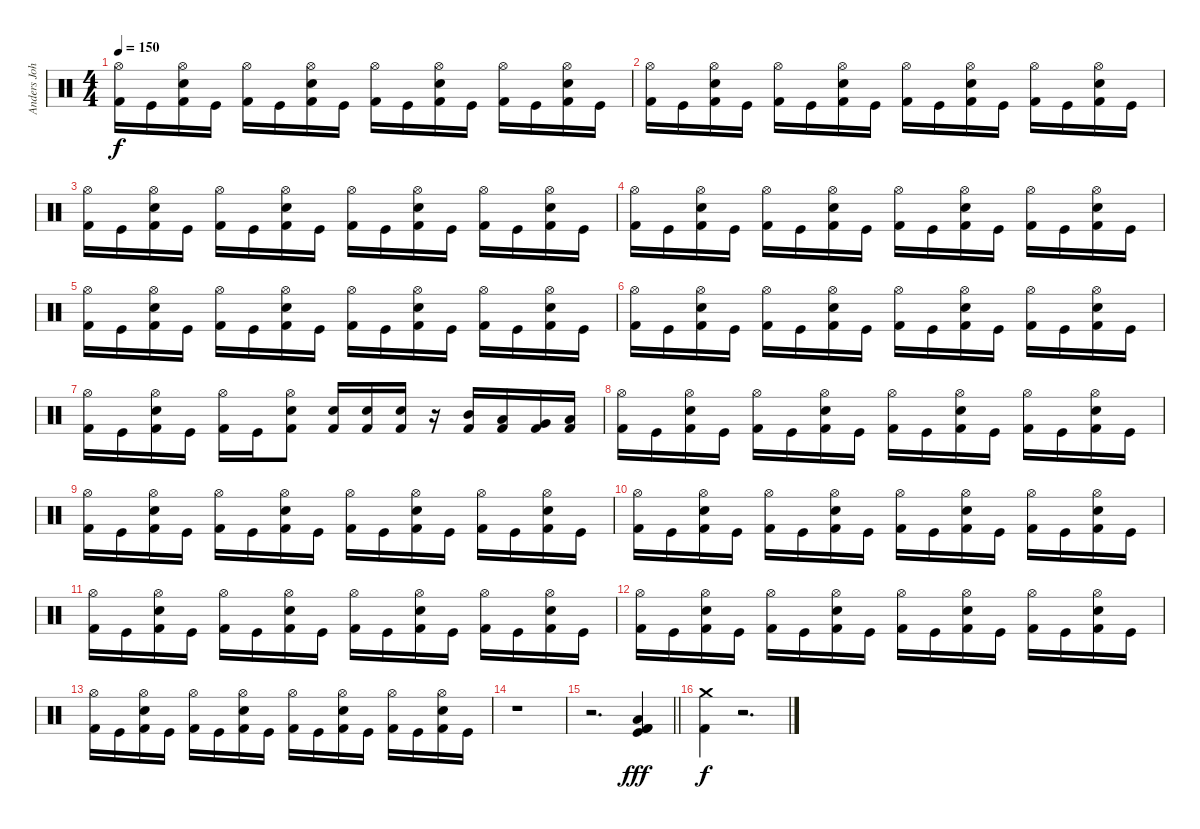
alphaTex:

\track ("Anders Johansson" "Anders Joh") {instrument percussion}
\staff {score}
\articulation defaults
\ts (4 4)
\tempo 150
\clef neutral
\ks c
("Hi-Hat (open)" "Kick (hit) 2").16{dy f} "Kick (hit)".16 ("Hi-Hat (open)" "Electric Snare (hit)" "Kick (hit) 2").16 "Kick (hit)".16 ("Hi-Hat (open)" "Kick (hit) 2").16 "Kick (hit)".16 ("Hi-Hat (open)" "Electric Snare (hit)" "Kick (hit) 2").16 "Kick (hit)".16 ("Hi-Hat (open)" "Kick (hit) 2").16 "Kick (hit)".16 ("Hi-Hat (open)" "Electric Snare (hit)" "Kick (hit) 2").16 "Kick (hit)".16 ("Hi-Hat (open)" "Kick (hit) 2").16 "Kick (hit)".16 ("Hi-Hat (open)" "Electric Snare (hit)" "Kick (hit) 2").16 "Kick (hit)".16 |
("Hi-Hat (open)" "Kick (hit) 2").16 "Kick (hit)".16 ("Hi-Hat (open)" "Electric Snare (hit)" "Kick (hit) 2").16 "Kick (hit)".16 ("Hi-Hat (open)" "Kick (hit) 2").16 "Kick (hit)".16 ("Hi-Hat (open)" "Electric Snare (hit)" "Kick (hit) 2").16 "Kick (hit)".16 ("Hi-Hat (open)" "Kick (hit) 2").16 "Kick (hit)".16 ("Hi-Hat (open)" "Electric Snare (hit)" "Kick (hit) 2").16 "Kick (hit)".16 ("Hi-Hat (open)" "Kick (hit) 2").16 "Kick (hit)".16 ("Hi-Hat (open)" "Electric Snare (hit)" "Kick (hit) 2").16 "Kick (hit)".16 |
("Hi-Hat (open)" "Kick (hit) 2").16 "Kick (hit)".16 ("Hi-Hat (open)" "Electric Snare (hit)" "Kick (hit) 2").16 "Kick (hit)".16 ("Hi-Hat (open)" "Kick (hit) 2").16 "Kick (hit)".16 ("Hi-Hat (open)" "Electric Snare (hit)" "Kick (hit) 2").16 "Kick (hit)".16 ("Hi-Hat (open)" "Kick (hit) 2").16 "Kick (hit)".16 ("Hi-Hat (open)" "Electric Snare (hit)" "Kick (hit) 2").16 "Kick (hit)".16 ("Hi-Hat (open)" "Kick (hit) 2").16 "Kick (hit)".16 ("Hi-Hat (open)" "Electric Snare (hit)" "Kick (hit) 2").16 "Kick (hit)".16 |
("Hi-Hat (open)" "Kick (hit) 2").16 "Kick (hit)".16 ("Hi-Hat (open)" "Electric Snare (hit)" "Kick (hit) 2").16 "Kick (hit)".16 ("Hi-Hat (open)" "Kick (hit) 2").16 "Kick (hit)".16 ("Hi-Hat (open)" "Electric Snare (hit)" "Kick (hit) 2").16 "Kick (hit)".16 ("Hi-Hat (open)" "Kick (hit) 2").16 "Kick (hit)".16 ("Hi-Hat (open)" "Electric Snare (hit)" "Kick (hit) 2").16 "Kick (hit)".16 ("Hi-Hat (open)" "Kick (hit) 2").16 "Kick (hit)".16 ("Hi-Hat (open)" "Electric Snare (hit)" "Kick (hit) 2").16 "Kick (hit)".16 |
("Hi-Hat (open)" "Kick (hit) 2").16 "Kick (hit)".16 ("Hi-Hat (open)" "Electric Snare (hit)" "Kick (hit) 2").16 "Kick (hit)".16 ("Hi-Hat (open)" "Kick (hit) 2").16 "Kick (hit)".16 ("Hi-Hat (open)" "Electric Snare (hit)" "Kick (hit) 2").16 "Kick (hit)".16 ("Hi-Hat (open)" "Kick (hit) 2").16 "Kick (hit)".16 ("Hi-Hat (open)" "Electric Snare (hit)" "Kick (hit) 2").16 "Kick (hit)".16 ("Hi-Hat (open)" "Kick (hit) 2").16 "Kick (hit)".16 ("Hi-Hat (open)" "Electric Snare (hit)" "Kick (hit) 2").16 "Kick (hit)".16 |
("Hi-Hat (open)" "Kick (hit) 2").16 "Kick (hit)".16 ("Hi-Hat (open)" "Electric Snare (hit)" "Kick (hit) 2").16 "Kick (hit)".16 ("Hi-Hat (open)" "Kick (hit) 2").16 "Kick (hit)".16 ("Hi-Hat (open)" "Electric Snare (hit)" "Kick (hit) 2").16 "Kick (hit)".16 ("Hi-Hat (open)" "Kick (hit) 2").16 "Kick (hit)".16 ("Hi-Hat (open)" "Electric Snare (hit)" "Kick (hit) 2").16 "Kick (hit)".16 ("Hi-Hat (open)" "Kick (hit) 2").16 "Kick (hit)".16 ("Hi-Hat (open)" "Electric Snare (hit)" "Kick (hit) 2").16 "Kick (hit)".16 |
("Hi-Hat (open)" "Kick (hit) 2").16 "Kick (hit)".16 ("Hi-Hat (open)" "Electric Snare (hit)" "Kick (hit) 2").16 "Kick (hit)".16 ("Hi-Hat (open)" "Kick (hit) 2").16 "Kick (hit)".16 ("Hi-Hat (open)" "Electric Snare (hit)" "Kick (hit) 2").8 ("Electric Snare (hit)" "Kick (hit) 2").16 ("Electric Snare (hit)" "Kick (hit) 2").16 ("Electric Snare (hit)" "Kick (hit) 2").16 r.16 ("Mid Tom (hit)" "Kick (hit) 2").16 ("Low Tom (hit)" "Kick (hit) 2").16 ("Very Low Tom (hit)" "Kick (hit) 2").16 ("Low Floor Tom (hit)" "Kick (hit) 2").16 |
("Hi-Hat (open)" "Kick (hit) 2").16 "Kick (hit)".16 ("Hi-Hat (open)" "Electric Snare (hit)" "Kick (hit) 2").16 "Kick (hit)".16 ("Hi-Hat (open)" "Kick (hit) 2").16 "Kick (hit)".16 ("Hi-Hat (open)" "Electric Snare (hit)" "Kick (hit) 2").16 "Kick (hit)".16 ("Hi-Hat (open)" "Kick (hit) 2").16 "Kick (hit)".16 ("Hi-Hat (open)" "Electric Snare (hit)" "Kick (hit) 2").16 "Kick (hit)".16 ("Hi-Hat (open)" "Kick (hit) 2").16 "Kick (hit)".16 ("Hi-Hat (open)" "Electric Snare (hit)" "Kick (hit) 2").16 "Kick (hit)".16 |
("Hi-Hat (open)" "Kick (hit) 2").16 "Kick (hit)".16 ("Hi-Hat (open)" "Electric Snare (hit)" "Kick (hit) 2").16 "Kick (hit)".16 ("Hi-Hat (open)" "Kick (hit) 2").16 "Kick (hit)".16 ("Hi-Hat (open)" "Electric Snare (hit)" "Kick (hit) 2").16 "Kick (hit)".16 ("Hi-Hat (open)" "Kick (hit) 2").16 "Kick (hit)".16 ("Hi-Hat (open)" "Electric Snare (hit)" "Kick (hit) 2").16 "Kick (hit)".16 ("Hi-Hat (open)" "Kick (hit) 2").16 "Kick (hit)".16 ("Hi-Hat (open)" "Electric Snare (hit)" "Kick (hit) 2").16 "Kick (hit)".16 |
("Hi-Hat (open)" "Kick (hit) 2").16 "Kick (hit)".16 ("Hi-Hat (open)" "Electric Snare (hit)" "Kick (hit) 2").16 "Kick (hit)".16 ("Hi-Hat (open)" "Kick (hit) 2").16 "Kick (hit)".16 ("Hi-Hat (open)" "Electric Snare (hit)" "Kick (hit) 2").16 "Kick (hit)".16 ("Hi-Hat (open)" "Kick (hit) 2").16 "Kick (hit)".16 ("Hi-Hat (open)" "Electric Snare (hit)" "Kick (hit) 2").16 "Kick (hit)".16 ("Hi-Hat (open)" "Kick (hit) 2").16 "Kick (hit)".16 ("Hi-Hat (open)" "Electric Snare (hit)" "Kick (hit) 2").16 "Kick (hit)".16 |
("Hi-Hat (open)" "Kick (hit) 2").16 "Kick (hit)".16 ("Hi-Hat (open)" "Electric Snare (hit)" "Kick (hit) 2").16 "Kick (hit)".16 ("Hi-Hat (open)" "Kick (hit) 2").16 "Kick (hit)".16 ("Hi-Hat (open)" "Electric Snare (hit)" "Kick (hit) 2").16 "Kick (hit)".16 ("Hi-Hat (open)" "Kick (hit) 2").16 "Kick (hit)".16 ("Hi-Hat (open)" "Electric Snare (hit)" "Kick (hit) 2").16 "Kick (hit)".16 ("Hi-Hat (open)" "Kick (hit) 2").16 "Kick (hit)".16 ("Hi-Hat (open)" "Electric Snare (hit)" "Kick (hit) 2").16 "Kick (hit)".16 |
("Hi-Hat (open)" "Kick (hit) 2").16 "Kick (hit)".16 ("Hi-Hat (open)" "Electric Snare (hit)" "Kick (hit) 2").16 "Kick (hit)".16 ("Hi-Hat (open)" "Kick (hit) 2").16 "Kick (hit)".16 ("Hi-Hat (open)" "Electric Snare (hit)" "Kick (hit) 2").16 "Kick (hit)".16 ("Hi-Hat (open)" "Kick (hit) 2").16 "Kick (hit)".16 ("Hi-Hat (open)" "Electric Snare (hit)" "Kick (hit) 2").16 "Kick (hit)".16 ("Hi-Hat (open)" "Kick (hit) 2").16 "Kick (hit)".16 ("Hi-Hat (open)" "Electric Snare (hit)" "Kick (hit) 2").16 "Kick (hit)".16 |
("Hi-Hat (open)" "Kick (hit) 2").16 "Kick (hit)".16 ("Hi-Hat (open)" "Electric Snare (hit)" "Kick (hit) 2").16 "Kick (hit)".16 ("Hi-Hat (open)" "Kick (hit) 2").16 "Kick (hit)".16 ("Hi-Hat (open)" "Electric Snare (hit)" "Kick (hit) 2").16 "Kick (hit)".16 ("Hi-Hat (open)" "Kick (hit) 2").16 "Kick (hit)".16 ("Hi-Hat (open)" "Electric Snare (hit)" "Kick (hit) 2").16 "Kick (hit)".16 ("Hi-Hat (open)" "Kick (hit) 2").16 "Kick (hit)".16 ("Hi-Hat (open)" "Electric Snare (hit)" "Kick (hit) 2").16 "Kick (hit)".16 |
r.1 |
\barLineRight lightlight
r.2{d} ("Low Tom (hit)" "Kick (hit) 2" "Kick (hit)" "Kick (hit) 2").4{dy fff} |
("Crash medium (hit)" "Kick (hit) 2").4{dy f} r.2{d}
